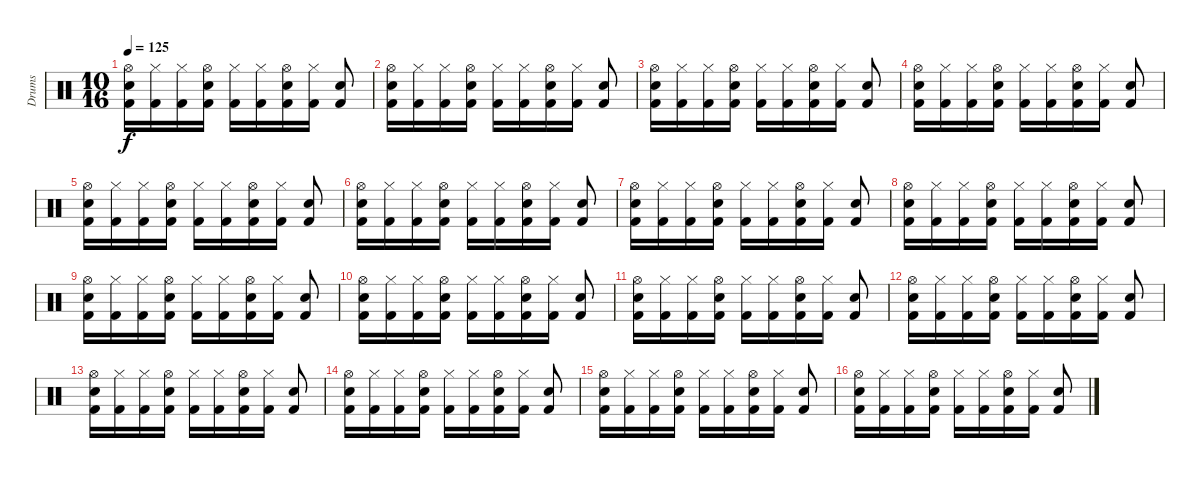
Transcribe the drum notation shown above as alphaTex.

\track ("Drums" "Drums") {instrument percussion}
\staff {score}
\articulation defaults
\ts (10 16)
\tempo 125
\clef neutral
\ks c
("Kick (hit) 2" "Electric Snare (hit)" "Hi-Hat (open)").16{dy f} ("Kick (hit) 2" "Hi-Hat (closed)").16 ("Kick (hit) 2" "Hi-Hat (closed)").16 ("Kick (hit) 2" "Electric Snare (hit)" "Hi-Hat (open)").16 ("Kick (hit) 2" "Hi-Hat (closed)").16 ("Kick (hit) 2" "Hi-Hat (closed)").16 ("Kick (hit) 2" "Electric Snare (hit)" "Hi-Hat (open)").16 ("Kick (hit) 2" "Hi-Hat (closed)").16 ("Kick (hit) 2" "Electric Snare (hit)").8 |
("Kick (hit) 2" "Electric Snare (hit)" "Hi-Hat (open)").16 ("Kick (hit) 2" "Hi-Hat (closed)").16 ("Kick (hit) 2" "Hi-Hat (closed)").16 ("Kick (hit) 2" "Electric Snare (hit)" "Hi-Hat (open)").16 ("Kick (hit) 2" "Hi-Hat (closed)").16 ("Kick (hit) 2" "Hi-Hat (closed)").16 ("Kick (hit) 2" "Electric Snare (hit)" "Hi-Hat (open)").16 ("Kick (hit) 2" "Hi-Hat (closed)").16 ("Kick (hit) 2" "Electric Snare (hit)").8 |
("Kick (hit) 2" "Electric Snare (hit)" "Hi-Hat (open)").16 ("Kick (hit) 2" "Hi-Hat (closed)").16 ("Kick (hit) 2" "Hi-Hat (closed)").16 ("Kick (hit) 2" "Electric Snare (hit)" "Hi-Hat (open)").16 ("Kick (hit) 2" "Hi-Hat (closed)").16 ("Kick (hit) 2" "Hi-Hat (closed)").16 ("Kick (hit) 2" "Electric Snare (hit)" "Hi-Hat (open)").16 ("Kick (hit) 2" "Hi-Hat (closed)").16 ("Kick (hit) 2" "Electric Snare (hit)").8 |
("Kick (hit) 2" "Electric Snare (hit)" "Hi-Hat (open)").16 ("Kick (hit) 2" "Hi-Hat (closed)").16 ("Kick (hit) 2" "Hi-Hat (closed)").16 ("Kick (hit) 2" "Electric Snare (hit)" "Hi-Hat (open)").16 ("Kick (hit) 2" "Hi-Hat (closed)").16 ("Kick (hit) 2" "Hi-Hat (closed)").16 ("Kick (hit) 2" "Electric Snare (hit)" "Hi-Hat (open)").16 ("Kick (hit) 2" "Hi-Hat (closed)").16 ("Kick (hit) 2" "Electric Snare (hit)").8 |
("Kick (hit) 2" "Electric Snare (hit)" "Hi-Hat (open)").16 ("Kick (hit) 2" "Hi-Hat (closed)").16 ("Kick (hit) 2" "Hi-Hat (closed)").16 ("Kick (hit) 2" "Electric Snare (hit)" "Hi-Hat (open)").16 ("Kick (hit) 2" "Hi-Hat (closed)").16 ("Kick (hit) 2" "Hi-Hat (closed)").16 ("Kick (hit) 2" "Electric Snare (hit)" "Hi-Hat (open)").16 ("Kick (hit) 2" "Hi-Hat (closed)").16 ("Kick (hit) 2" "Electric Snare (hit)").8 |
("Kick (hit) 2" "Electric Snare (hit)" "Hi-Hat (open)").16 ("Kick (hit) 2" "Hi-Hat (closed)").16 ("Kick (hit) 2" "Hi-Hat (closed)").16 ("Kick (hit) 2" "Electric Snare (hit)" "Hi-Hat (open)").16 ("Kick (hit) 2" "Hi-Hat (closed)").16 ("Kick (hit) 2" "Hi-Hat (closed)").16 ("Kick (hit) 2" "Electric Snare (hit)" "Hi-Hat (open)").16 ("Kick (hit) 2" "Hi-Hat (closed)").16 ("Kick (hit) 2" "Electric Snare (hit)").8 |
("Kick (hit) 2" "Electric Snare (hit)" "Hi-Hat (open)").16 ("Kick (hit) 2" "Hi-Hat (closed)").16 ("Kick (hit) 2" "Hi-Hat (closed)").16 ("Kick (hit) 2" "Electric Snare (hit)" "Hi-Hat (open)").16 ("Kick (hit) 2" "Hi-Hat (closed)").16 ("Kick (hit) 2" "Hi-Hat (closed)").16 ("Kick (hit) 2" "Electric Snare (hit)" "Hi-Hat (open)").16 ("Kick (hit) 2" "Hi-Hat (closed)").16 ("Kick (hit) 2" "Electric Snare (hit)").8 |
("Kick (hit) 2" "Electric Snare (hit)" "Hi-Hat (open)").16 ("Kick (hit) 2" "Hi-Hat (closed)").16 ("Kick (hit) 2" "Hi-Hat (closed)").16 ("Kick (hit) 2" "Electric Snare (hit)" "Hi-Hat (open)").16 ("Kick (hit) 2" "Hi-Hat (closed)").16 ("Kick (hit) 2" "Hi-Hat (closed)").16 ("Kick (hit) 2" "Electric Snare (hit)" "Hi-Hat (open)").16 ("Kick (hit) 2" "Hi-Hat (closed)").16 ("Kick (hit) 2" "Electric Snare (hit)").8 |
("Kick (hit) 2" "Electric Snare (hit)" "Hi-Hat (open)").16 ("Kick (hit) 2" "Hi-Hat (closed)").16 ("Kick (hit) 2" "Hi-Hat (closed)").16 ("Kick (hit) 2" "Electric Snare (hit)" "Hi-Hat (open)").16 ("Kick (hit) 2" "Hi-Hat (closed)").16 ("Kick (hit) 2" "Hi-Hat (closed)").16 ("Kick (hit) 2" "Electric Snare (hit)" "Hi-Hat (open)").16 ("Kick (hit) 2" "Hi-Hat (closed)").16 ("Kick (hit) 2" "Electric Snare (hit)").8 |
("Kick (hit) 2" "Electric Snare (hit)" "Hi-Hat (open)").16 ("Kick (hit) 2" "Hi-Hat (closed)").16 ("Kick (hit) 2" "Hi-Hat (closed)").16 ("Kick (hit) 2" "Electric Snare (hit)" "Hi-Hat (open)").16 ("Kick (hit) 2" "Hi-Hat (closed)").16 ("Kick (hit) 2" "Hi-Hat (closed)").16 ("Kick (hit) 2" "Electric Snare (hit)" "Hi-Hat (open)").16 ("Kick (hit) 2" "Hi-Hat (closed)").16 ("Kick (hit) 2" "Electric Snare (hit)").8 |
("Kick (hit) 2" "Electric Snare (hit)" "Hi-Hat (open)").16 ("Kick (hit) 2" "Hi-Hat (closed)").16 ("Kick (hit) 2" "Hi-Hat (closed)").16 ("Kick (hit) 2" "Electric Snare (hit)" "Hi-Hat (open)").16 ("Kick (hit) 2" "Hi-Hat (closed)").16 ("Kick (hit) 2" "Hi-Hat (closed)").16 ("Kick (hit) 2" "Electric Snare (hit)" "Hi-Hat (open)").16 ("Kick (hit) 2" "Hi-Hat (closed)").16 ("Kick (hit) 2" "Electric Snare (hit)").8 |
("Kick (hit) 2" "Electric Snare (hit)" "Hi-Hat (open)").16 ("Kick (hit) 2" "Hi-Hat (closed)").16 ("Kick (hit) 2" "Hi-Hat (closed)").16 ("Kick (hit) 2" "Electric Snare (hit)" "Hi-Hat (open)").16 ("Kick (hit) 2" "Hi-Hat (closed)").16 ("Kick (hit) 2" "Hi-Hat (closed)").16 ("Kick (hit) 2" "Electric Snare (hit)" "Hi-Hat (open)").16 ("Kick (hit) 2" "Hi-Hat (closed)").16 ("Kick (hit) 2" "Electric Snare (hit)").8 |
("Kick (hit) 2" "Electric Snare (hit)" "Hi-Hat (open)").16 ("Kick (hit) 2" "Hi-Hat (closed)").16 ("Kick (hit) 2" "Hi-Hat (closed)").16 ("Kick (hit) 2" "Electric Snare (hit)" "Hi-Hat (open)").16 ("Kick (hit) 2" "Hi-Hat (closed)").16 ("Kick (hit) 2" "Hi-Hat (closed)").16 ("Kick (hit) 2" "Electric Snare (hit)" "Hi-Hat (open)").16 ("Kick (hit) 2" "Hi-Hat (closed)").16 ("Kick (hit) 2" "Electric Snare (hit)").8 |
("Kick (hit) 2" "Electric Snare (hit)" "Hi-Hat (open)").16 ("Kick (hit) 2" "Hi-Hat (closed)").16 ("Kick (hit) 2" "Hi-Hat (closed)").16 ("Kick (hit) 2" "Electric Snare (hit)" "Hi-Hat (open)").16 ("Kick (hit) 2" "Hi-Hat (closed)").16 ("Kick (hit) 2" "Hi-Hat (closed)").16 ("Kick (hit) 2" "Electric Snare (hit)" "Hi-Hat (open)").16 ("Kick (hit) 2" "Hi-Hat (closed)").16 ("Kick (hit) 2" "Electric Snare (hit)").8 |
("Kick (hit) 2" "Electric Snare (hit)" "Hi-Hat (open)").16 ("Kick (hit) 2" "Hi-Hat (closed)").16 ("Kick (hit) 2" "Hi-Hat (closed)").16 ("Kick (hit) 2" "Electric Snare (hit)" "Hi-Hat (open)").16 ("Kick (hit) 2" "Hi-Hat (closed)").16 ("Kick (hit) 2" "Hi-Hat (closed)").16 ("Kick (hit) 2" "Electric Snare (hit)" "Hi-Hat (open)").16 ("Kick (hit) 2" "Hi-Hat (closed)").16 ("Kick (hit) 2" "Electric Snare (hit)").8 |
("Kick (hit) 2" "Electric Snare (hit)" "Hi-Hat (open)").16 ("Kick (hit) 2" "Hi-Hat (closed)").16 ("Kick (hit) 2" "Hi-Hat (closed)").16 ("Kick (hit) 2" "Electric Snare (hit)" "Hi-Hat (open)").16 ("Kick (hit) 2" "Hi-Hat (closed)").16 ("Kick (hit) 2" "Hi-Hat (closed)").16 ("Kick (hit) 2" "Electric Snare (hit)" "Hi-Hat (open)").16 ("Kick (hit) 2" "Hi-Hat (closed)").16 ("Kick (hit) 2" "Electric Snare (hit)").8
